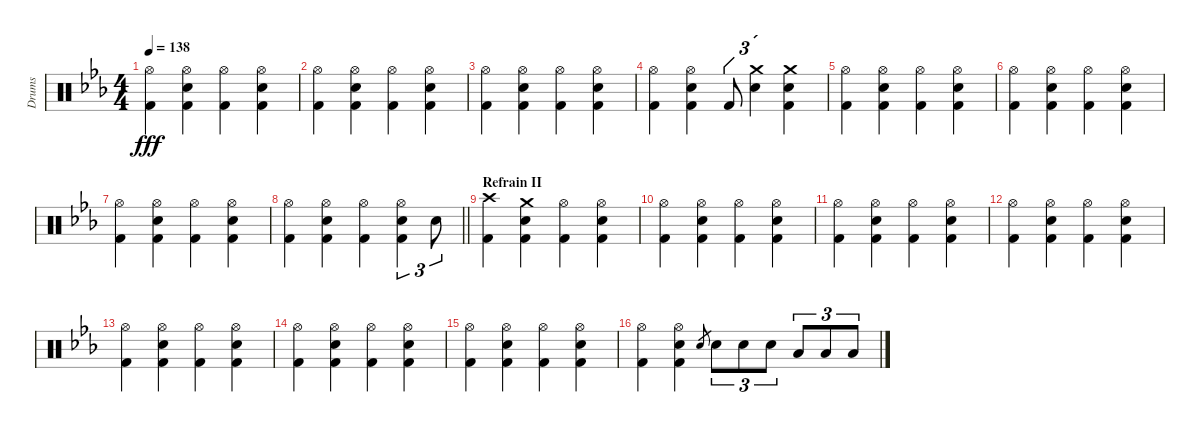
\track ("Drums" "Drums") {instrument percussion}
\staff {score}
\articulation defaults
\ts (4 4)
\tempo 138
\clef neutral
\ks eb
("Hi-Hat (open)" "Kick (hit) 2").4{dy fff} ("Hi-Hat (open)" "Snare (hit) 2" "Kick (hit) 2").4 ("Hi-Hat (open)" "Kick (hit) 2").4 ("Hi-Hat (open)" "Snare (hit) 2" "Kick (hit) 2").4 |
("Hi-Hat (open)" "Kick (hit) 2").4 ("Hi-Hat (open)" "Snare (hit) 2" "Kick (hit) 2").4 ("Hi-Hat (open)" "Kick (hit) 2").4 ("Hi-Hat (open)" "Snare (hit) 2" "Kick (hit) 2").4 |
("Hi-Hat (open)" "Kick (hit) 2").4 ("Hi-Hat (open)" "Snare (hit) 2" "Kick (hit) 2").4 ("Hi-Hat (open)" "Kick (hit) 2").4 ("Hi-Hat (open)" "Snare (hit) 2" "Kick (hit) 2").4 |
("Hi-Hat (open)" "Kick (hit) 2").4 ("Hi-Hat (open)" "Snare (hit) 2" "Kick (hit) 2").4 "Kick (hit) 2".8{tu (3 2)} ("Crash medium (hit)" "Snare (hit) 2").4{tu (3 2)} ("Crash medium (hit)" "Snare (hit) 2" "Kick (hit) 2").4 |
("Hi-Hat (open)" "Kick (hit) 2").4 ("Hi-Hat (open)" "Snare (hit) 2" "Kick (hit) 2").4 ("Hi-Hat (open)" "Kick (hit) 2").4 ("Hi-Hat (open)" "Snare (hit) 2" "Kick (hit) 2").4 |
("Hi-Hat (open)" "Kick (hit) 2").4 ("Hi-Hat (open)" "Snare (hit) 2" "Kick (hit) 2").4 ("Hi-Hat (open)" "Kick (hit) 2").4 ("Hi-Hat (open)" "Snare (hit) 2" "Kick (hit) 2").4 |
("Hi-Hat (open)" "Kick (hit) 2").4 ("Hi-Hat (open)" "Snare (hit) 2" "Kick (hit) 2").4 ("Hi-Hat (open)" "Kick (hit) 2").4 ("Hi-Hat (open)" "Snare (hit) 2" "Kick (hit) 2").4 |
\barLineRight lightlight
("Hi-Hat (open)" "Kick (hit) 2").4 ("Hi-Hat (open)" "Snare (hit) 2" "Kick (hit) 2").4 ("Hi-Hat (open)" "Kick (hit) 2").4 ("Hi-Hat (open)" "Snare (hit) 2" "Kick (hit) 2").4{tu (3 2)} "Snare (hit) 2".8{tu (3 2)} |
\section ("" "Refrain II")
("Crash high (hit)" "Kick (hit) 2").4 ("Crash medium (hit)" "Snare (hit) 2" "Kick (hit) 2").4 ("Hi-Hat (open)" "Kick (hit) 2").4 ("Hi-Hat (open)" "Snare (hit) 2" "Kick (hit) 2").4 |
("Hi-Hat (open)" "Kick (hit) 2").4 ("Hi-Hat (open)" "Snare (hit) 2" "Kick (hit) 2").4 ("Hi-Hat (open)" "Kick (hit) 2").4 ("Hi-Hat (open)" "Snare (hit) 2" "Kick (hit) 2").4 |
("Hi-Hat (open)" "Kick (hit) 2").4 ("Hi-Hat (open)" "Snare (hit) 2" "Kick (hit) 2").4 ("Hi-Hat (open)" "Kick (hit) 2").4 ("Hi-Hat (open)" "Snare (hit) 2" "Kick (hit) 2").4 |
("Hi-Hat (open)" "Kick (hit) 2").4 ("Hi-Hat (open)" "Snare (hit) 2" "Kick (hit) 2").4 ("Hi-Hat (open)" "Kick (hit) 2").4 ("Hi-Hat (open)" "Snare (hit) 2" "Kick (hit) 2").4 |
("Hi-Hat (open)" "Kick (hit) 2").4 ("Hi-Hat (open)" "Snare (hit) 2" "Kick (hit) 2").4 ("Hi-Hat (open)" "Kick (hit) 2").4 ("Hi-Hat (open)" "Snare (hit) 2" "Kick (hit) 2").4 |
("Hi-Hat (open)" "Kick (hit) 2").4 ("Hi-Hat (open)" "Snare (hit) 2" "Kick (hit) 2").4 ("Hi-Hat (open)" "Kick (hit) 2").4 ("Hi-Hat (open)" "Snare (hit) 2" "Kick (hit) 2").4 |
("Hi-Hat (open)" "Kick (hit) 2").4 ("Hi-Hat (open)" "Snare (hit) 2" "Kick (hit) 2").4 ("Hi-Hat (open)" "Kick (hit) 2").4 ("Hi-Hat (open)" "Snare (hit) 2" "Kick (hit) 2").4 |
("Hi-Hat (open)" "Kick (hit) 2").4 ("Hi-Hat (open)" "Snare (hit) 2" "Kick (hit) 2").4 "Snare (hit) 2".8{gr} "Snare (hit) 2".8{tu (3 2)} "Snare (hit) 2".8{tu (3 2)} "Snare (hit) 2".8{tu (3 2)} "Low Tom (hit)".8{tu (3 2)} "Low Tom (hit)".8{tu (3 2)} "Low Tom (hit)".8{tu (3 2)}
